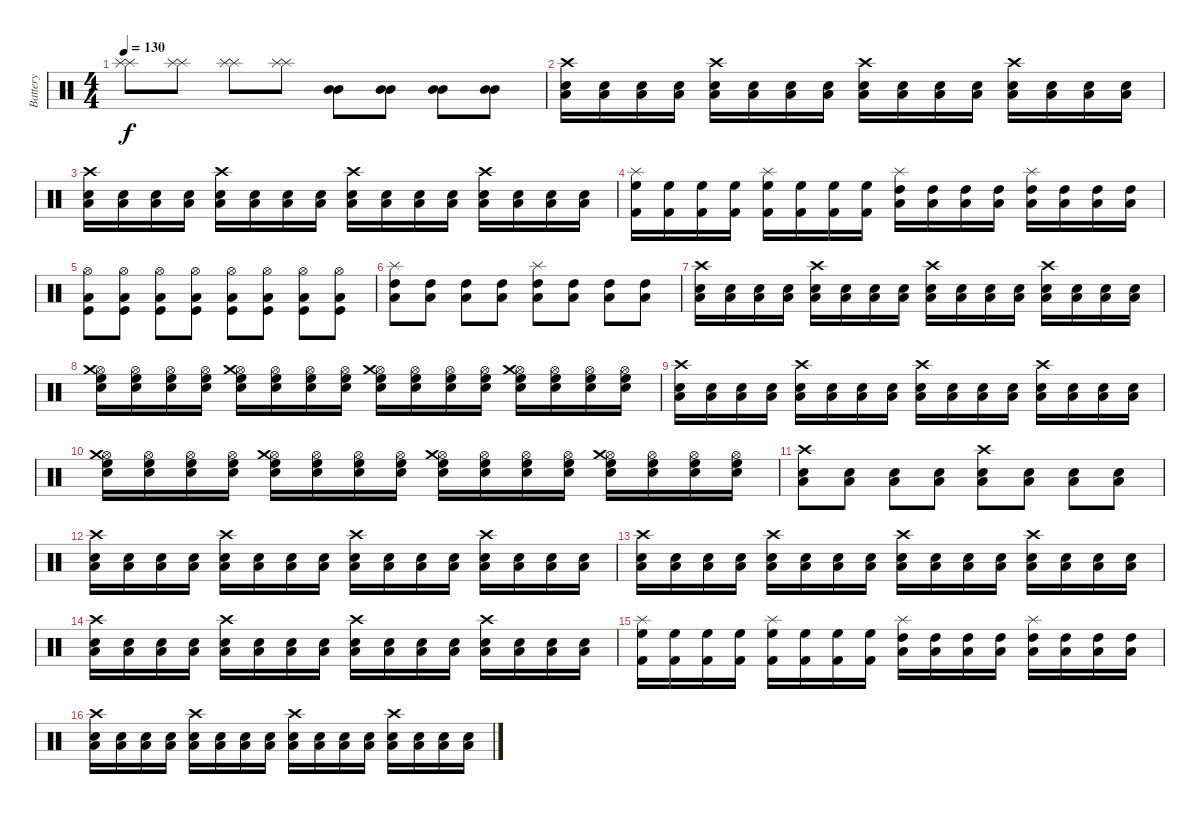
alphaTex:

\track ("Battery" "Battery") {instrument percussion}
\staff {score}
\articulation defaults
\ts (4 4)
\tempo 130
\clef neutral
\ks c
("Splash (hit)" "Splash (hit)").8{dy f} ("Splash (hit)" "Splash (hit)").8 ("Splash (hit)" "Splash (hit)").8 ("Splash (hit)" "Splash (hit)").8 ("Mid Tom (hit)" "Mid Tom (hit)").8 ("Mid Tom (hit)" "Mid Tom (hit)").8 ("Mid Tom (hit)" "Mid Tom (hit)").8 ("Mid Tom (hit)" "Mid Tom (hit)").8 |
("Low Floor Tom (hit)" "Electric Snare (hit)" "Crash high (hit)").16 ("Low Floor Tom (hit)" "Electric Snare (hit)").16 ("Low Floor Tom (hit)" "Electric Snare (hit)").16 ("Low Floor Tom (hit)" "Electric Snare (hit)").16 ("Low Floor Tom (hit)" "Electric Snare (hit)" "Crash high (hit)").16 ("Low Floor Tom (hit)" "Electric Snare (hit)").16 ("Low Floor Tom (hit)" "Electric Snare (hit)").16 ("Low Floor Tom (hit)" "Electric Snare (hit)").16 ("Snare (hit) 2" "Low Tom (hit)" "Crash high (hit)").16 ("Snare (hit) 2" "Low Tom (hit)").16 ("Snare (hit) 2" "Low Tom (hit)").16 ("Snare (hit) 2" "Low Tom (hit)").16 ("Snare (hit) 2" "Low Tom (hit)" "Crash high (hit)").16 ("Snare (hit) 2" "Low Tom (hit)").16 ("Snare (hit) 2" "Low Tom (hit)").16 ("Snare (hit) 2" "Low Tom (hit)").16 |
("Snare (hit) 2" "Low Tom (hit)" "Crash high (hit)").16 ("Snare (hit) 2" "Low Tom (hit)").16 ("Snare (hit) 2" "Low Tom (hit)").16 ("Snare (hit) 2" "Low Tom (hit)").16 ("Snare (hit) 2" "Low Tom (hit)" "Crash high (hit)").16 ("Snare (hit) 2" "Low Tom (hit)").16 ("Snare (hit) 2" "Low Tom (hit)").16 ("Snare (hit) 2" "Low Tom (hit)").16 ("Low Floor Tom (hit)" "Electric Snare (hit)" "Crash high (hit)").16 ("Low Floor Tom (hit)" "Electric Snare (hit)").16 ("Low Floor Tom (hit)" "Electric Snare (hit)").16 ("Low Floor Tom (hit)" "Electric Snare (hit)").16 ("Low Floor Tom (hit)" "Electric Snare (hit)" "Crash high (hit)").16 ("Low Floor Tom (hit)" "Electric Snare (hit)").16 ("Low Floor Tom (hit)" "Electric Snare (hit)").16 ("Low Floor Tom (hit)" "Electric Snare (hit)").16 |
("Kick (hit) 2" "High Floor Tom (hit)" "Splash (hit)").16 ("Kick (hit) 2" "High Floor Tom (hit)").16 ("Kick (hit) 2" "High Floor Tom (hit)").16 ("Kick (hit) 2" "High Floor Tom (hit)").16 ("Kick (hit) 2" "High Floor Tom (hit)" "Splash (hit)").16 ("Kick (hit) 2" "High Floor Tom (hit)").16 ("Kick (hit) 2" "High Floor Tom (hit)").16 ("Kick (hit) 2" "High Floor Tom (hit)").16 ("Low Floor Tom (hit)" "High Tom (hit)" "Splash (hit)").16 ("Low Floor Tom (hit)" "High Tom (hit)").16 ("Low Floor Tom (hit)" "High Tom (hit)").16 ("Low Floor Tom (hit)" "High Tom (hit)").16 ("Low Floor Tom (hit)" "High Tom (hit)" "Splash (hit)").16 ("Low Floor Tom (hit)" "High Tom (hit)").16 ("Low Floor Tom (hit)" "High Tom (hit)").16 ("Low Floor Tom (hit)" "High Tom (hit)").16 |
("Kick (hit)" "Low Tom (hit)" "Hi-Hat (open)").8 ("Kick (hit)" "Low Tom (hit)" "Hi-Hat (open)").8 ("Kick (hit)" "Low Tom (hit)" "Hi-Hat (open)").8 ("Kick (hit)" "Low Tom (hit)" "Hi-Hat (open)").8 ("Kick (hit)" "Low Tom (hit)" "Hi-Hat (open)").8 ("Kick (hit)" "Low Tom (hit)" "Hi-Hat (open)").8 ("Kick (hit)" "Low Tom (hit)" "Hi-Hat (open)").8 ("Kick (hit)" "Low Tom (hit)" "Hi-Hat (open)").8 |
("Low Floor Tom (hit)" "High Tom (hit)" "Splash (hit)").8 ("Low Floor Tom (hit)" "High Tom (hit)").8 ("Low Floor Tom (hit)" "High Tom (hit)").8 ("Low Floor Tom (hit)" "High Tom (hit)").8 ("Low Floor Tom (hit)" "High Tom (hit)" "Splash (hit)").8 ("Low Floor Tom (hit)" "High Tom (hit)").8 ("Low Floor Tom (hit)" "High Tom (hit)").8 ("Low Floor Tom (hit)" "High Tom (hit)").8 |
("Snare (hit) 2" "Low Tom (hit)" "Crash high (hit)").16 ("Snare (hit) 2" "Low Tom (hit)").16 ("Snare (hit) 2" "Low Tom (hit)").16 ("Snare (hit) 2" "Low Tom (hit)").16 ("Snare (hit) 2" "Low Tom (hit)" "Crash high (hit)").16 ("Snare (hit) 2" "Low Tom (hit)").16 ("Snare (hit) 2" "Low Tom (hit)").16 ("Snare (hit) 2" "Low Tom (hit)").16 ("Low Floor Tom (hit)" "Electric Snare (hit)" "Crash high (hit)").16 ("Low Floor Tom (hit)" "Electric Snare (hit)").16 ("Low Floor Tom (hit)" "Electric Snare (hit)").16 ("Low Floor Tom (hit)" "Electric Snare (hit)").16 ("Low Floor Tom (hit)" "Electric Snare (hit)" "Crash high (hit)").16 ("Low Floor Tom (hit)" "Electric Snare (hit)").16 ("Low Floor Tom (hit)" "Electric Snare (hit)").16 ("Low Floor Tom (hit)" "Electric Snare (hit)").16 |
("Electric Snare (hit)" "High Floor Tom (hit)" "Hi-Hat (open)" "Crash medium (hit)").16 ("Electric Snare (hit)" "High Floor Tom (hit)" "Hi-Hat (open)").16 ("Electric Snare (hit)" "High Floor Tom (hit)" "Hi-Hat (open)").16 ("Electric Snare (hit)" "High Floor Tom (hit)" "Hi-Hat (open)").16 ("Electric Snare (hit)" "High Floor Tom (hit)" "Hi-Hat (open)" "Crash medium (hit)").16 ("Electric Snare (hit)" "High Floor Tom (hit)" "Hi-Hat (open)").16 ("Electric Snare (hit)" "High Floor Tom (hit)" "Hi-Hat (open)").16 ("Electric Snare (hit)" "High Floor Tom (hit)" "Hi-Hat (open)").16 ("Electric Snare (hit)" "High Floor Tom (hit)" "Hi-Hat (open)" "Crash medium (hit)").16 ("Electric Snare (hit)" "High Floor Tom (hit)" "Hi-Hat (open)").16 ("Electric Snare (hit)" "High Floor Tom (hit)" "Hi-Hat (open)").16 ("Electric Snare (hit)" "High Floor Tom (hit)" "Hi-Hat (open)").16 ("Electric Snare (hit)" "High Floor Tom (hit)" "Hi-Hat (open)" "Crash medium (hit)").16 ("Electric Snare (hit)" "High Floor Tom (hit)" "Hi-Hat (open)").16 ("Electric Snare (hit)" "High Floor Tom (hit)" "Hi-Hat (open)").16 ("Electric Snare (hit)" "High Floor Tom (hit)" "Hi-Hat (open)").16 |
("Snare (hit) 2" "Low Tom (hit)" "Crash high (hit)").16 ("Snare (hit) 2" "Low Tom (hit)").16 ("Snare (hit) 2" "Low Tom (hit)").16 ("Snare (hit) 2" "Low Tom (hit)").16 ("Snare (hit) 2" "Low Tom (hit)" "Crash high (hit)").16 ("Snare (hit) 2" "Low Tom (hit)").16 ("Snare (hit) 2" "Low Tom (hit)").16 ("Snare (hit) 2" "Low Tom (hit)").16 ("Low Floor Tom (hit)" "Electric Snare (hit)" "Crash high (hit)").16 ("Low Floor Tom (hit)" "Electric Snare (hit)").16 ("Low Floor Tom (hit)" "Electric Snare (hit)").16 ("Low Floor Tom (hit)" "Electric Snare (hit)").16 ("Low Floor Tom (hit)" "Electric Snare (hit)" "Crash high (hit)").16 ("Low Floor Tom (hit)" "Electric Snare (hit)").16 ("Low Floor Tom (hit)" "Electric Snare (hit)").16 ("Low Floor Tom (hit)" "Electric Snare (hit)").16 |
("Electric Snare (hit)" "High Floor Tom (hit)" "Hi-Hat (open)" "Crash medium (hit)").16 ("Electric Snare (hit)" "High Floor Tom (hit)" "Hi-Hat (open)").16 ("Electric Snare (hit)" "High Floor Tom (hit)" "Hi-Hat (open)").16 ("Electric Snare (hit)" "High Floor Tom (hit)" "Hi-Hat (open)").16 ("Electric Snare (hit)" "High Floor Tom (hit)" "Hi-Hat (open)" "Crash medium (hit)").16 ("Electric Snare (hit)" "High Floor Tom (hit)" "Hi-Hat (open)").16 ("Electric Snare (hit)" "High Floor Tom (hit)" "Hi-Hat (open)").16 ("Electric Snare (hit)" "High Floor Tom (hit)" "Hi-Hat (open)").16 ("Electric Snare (hit)" "High Floor Tom (hit)" "Hi-Hat (open)" "Crash medium (hit)").16 ("Electric Snare (hit)" "High Floor Tom (hit)" "Hi-Hat (open)").16 ("Electric Snare (hit)" "High Floor Tom (hit)" "Hi-Hat (open)").16 ("Electric Snare (hit)" "High Floor Tom (hit)" "Hi-Hat (open)").16 ("Electric Snare (hit)" "High Floor Tom (hit)" "Hi-Hat (open)" "Crash medium (hit)").16 ("Electric Snare (hit)" "High Floor Tom (hit)" "Hi-Hat (open)").16 ("Electric Snare (hit)" "High Floor Tom (hit)" "Hi-Hat (open)").16 ("Electric Snare (hit)" "High Floor Tom (hit)" "Hi-Hat (open)").16 |
("Snare (hit) 2" "Low Floor Tom (hit)" "Crash high (hit)").8 ("Snare (hit) 2" "Low Floor Tom (hit)").8 ("Snare (hit) 2" "Low Floor Tom (hit)").8 ("Snare (hit) 2" "Low Floor Tom (hit)").8 ("Snare (hit) 2" "Low Tom (hit)" "Crash high (hit)").8 ("Snare (hit) 2" "Low Tom (hit)").8 ("Snare (hit) 2" "Low Tom (hit)").8 ("Snare (hit) 2" "Low Tom (hit)").8 |
("Snare (hit) 2" "Low Tom (hit)" "Crash high (hit)").16 ("Snare (hit) 2" "Low Tom (hit)").16 ("Snare (hit) 2" "Low Tom (hit)").16 ("Snare (hit) 2" "Low Tom (hit)").16 ("Snare (hit) 2" "Low Tom (hit)" "Crash high (hit)").16 ("Snare (hit) 2" "Low Tom (hit)").16 ("Snare (hit) 2" "Low Tom (hit)").16 ("Snare (hit) 2" "Low Tom (hit)").16 ("Low Floor Tom (hit)" "Electric Snare (hit)" "Crash high (hit)").16 ("Low Floor Tom (hit)" "Electric Snare (hit)").16 ("Low Floor Tom (hit)" "Electric Snare (hit)").16 ("Low Floor Tom (hit)" "Electric Snare (hit)").16 ("Low Floor Tom (hit)" "Electric Snare (hit)" "Crash high (hit)").16 ("Low Floor Tom (hit)" "Electric Snare (hit)").16 ("Low Floor Tom (hit)" "Electric Snare (hit)").16 ("Low Floor Tom (hit)" "Electric Snare (hit)").16 |
("Low Floor Tom (hit)" "Electric Snare (hit)" "Crash high (hit)").16 ("Low Floor Tom (hit)" "Electric Snare (hit)").16 ("Low Floor Tom (hit)" "Electric Snare (hit)").16 ("Low Floor Tom (hit)" "Electric Snare (hit)").16 ("Low Floor Tom (hit)" "Electric Snare (hit)" "Crash high (hit)").16 ("Low Floor Tom (hit)" "Electric Snare (hit)").16 ("Low Floor Tom (hit)" "Electric Snare (hit)").16 ("Low Floor Tom (hit)" "Electric Snare (hit)").16 ("Snare (hit) 2" "Low Tom (hit)" "Crash high (hit)").16 ("Snare (hit) 2" "Low Tom (hit)").16 ("Snare (hit) 2" "Low Tom (hit)").16 ("Snare (hit) 2" "Low Tom (hit)").16 ("Snare (hit) 2" "Low Tom (hit)" "Crash high (hit)").16 ("Snare (hit) 2" "Low Tom (hit)").16 ("Snare (hit) 2" "Low Tom (hit)").16 ("Snare (hit) 2" "Low Tom (hit)").16 |
("Snare (hit) 2" "Low Tom (hit)" "Crash high (hit)").16 ("Snare (hit) 2" "Low Tom (hit)").16 ("Snare (hit) 2" "Low Tom (hit)").16 ("Snare (hit) 2" "Low Tom (hit)").16 ("Snare (hit) 2" "Low Tom (hit)" "Crash high (hit)").16 ("Snare (hit) 2" "Low Tom (hit)").16 ("Snare (hit) 2" "Low Tom (hit)").16 ("Snare (hit) 2" "Low Tom (hit)").16 ("Low Floor Tom (hit)" "Electric Snare (hit)" "Crash high (hit)").16 ("Low Floor Tom (hit)" "Electric Snare (hit)").16 ("Low Floor Tom (hit)" "Electric Snare (hit)").16 ("Low Floor Tom (hit)" "Electric Snare (hit)").16 ("Low Floor Tom (hit)" "Electric Snare (hit)" "Crash high (hit)").16 ("Low Floor Tom (hit)" "Electric Snare (hit)").16 ("Low Floor Tom (hit)" "Electric Snare (hit)").16 ("Low Floor Tom (hit)" "Electric Snare (hit)").16 |
("Kick (hit) 2" "High Floor Tom (hit)" "Splash (hit)").16 ("Kick (hit) 2" "High Floor Tom (hit)").16 ("Kick (hit) 2" "High Floor Tom (hit)").16 ("Kick (hit) 2" "High Floor Tom (hit)").16 ("Kick (hit) 2" "High Floor Tom (hit)" "Splash (hit)").16 ("Kick (hit) 2" "High Floor Tom (hit)").16 ("Kick (hit) 2" "High Floor Tom (hit)").16 ("Kick (hit) 2" "High Floor Tom (hit)").16 ("Low Floor Tom (hit)" "High Tom (hit)" "Splash (hit)").16 ("Low Floor Tom (hit)" "High Tom (hit)").16 ("Low Floor Tom (hit)" "High Tom (hit)").16 ("Low Floor Tom (hit)" "High Tom (hit)").16 ("Low Floor Tom (hit)" "High Tom (hit)" "Splash (hit)").16 ("Low Floor Tom (hit)" "High Tom (hit)").16 ("Low Floor Tom (hit)" "High Tom (hit)").16 ("Low Floor Tom (hit)" "High Tom (hit)").16 |
("Snare (hit) 2" "Low Tom (hit)" "Crash high (hit)").16 ("Snare (hit) 2" "Low Tom (hit)").16 ("Snare (hit) 2" "Low Tom (hit)").16 ("Snare (hit) 2" "Low Tom (hit)").16 ("Snare (hit) 2" "Low Tom (hit)" "Crash high (hit)").16 ("Snare (hit) 2" "Low Tom (hit)").16 ("Snare (hit) 2" "Low Tom (hit)").16 ("Snare (hit) 2" "Low Tom (hit)").16 ("Low Floor Tom (hit)" "Electric Snare (hit)" "Crash high (hit)").16 ("Low Floor Tom (hit)" "Electric Snare (hit)").16 ("Low Floor Tom (hit)" "Electric Snare (hit)").16 ("Low Floor Tom (hit)" "Electric Snare (hit)").16 ("Low Floor Tom (hit)" "Electric Snare (hit)" "Crash high (hit)").16 ("Low Floor Tom (hit)" "Electric Snare (hit)").16 ("Low Floor Tom (hit)" "Electric Snare (hit)").16 ("Low Floor Tom (hit)" "Electric Snare (hit)").16
